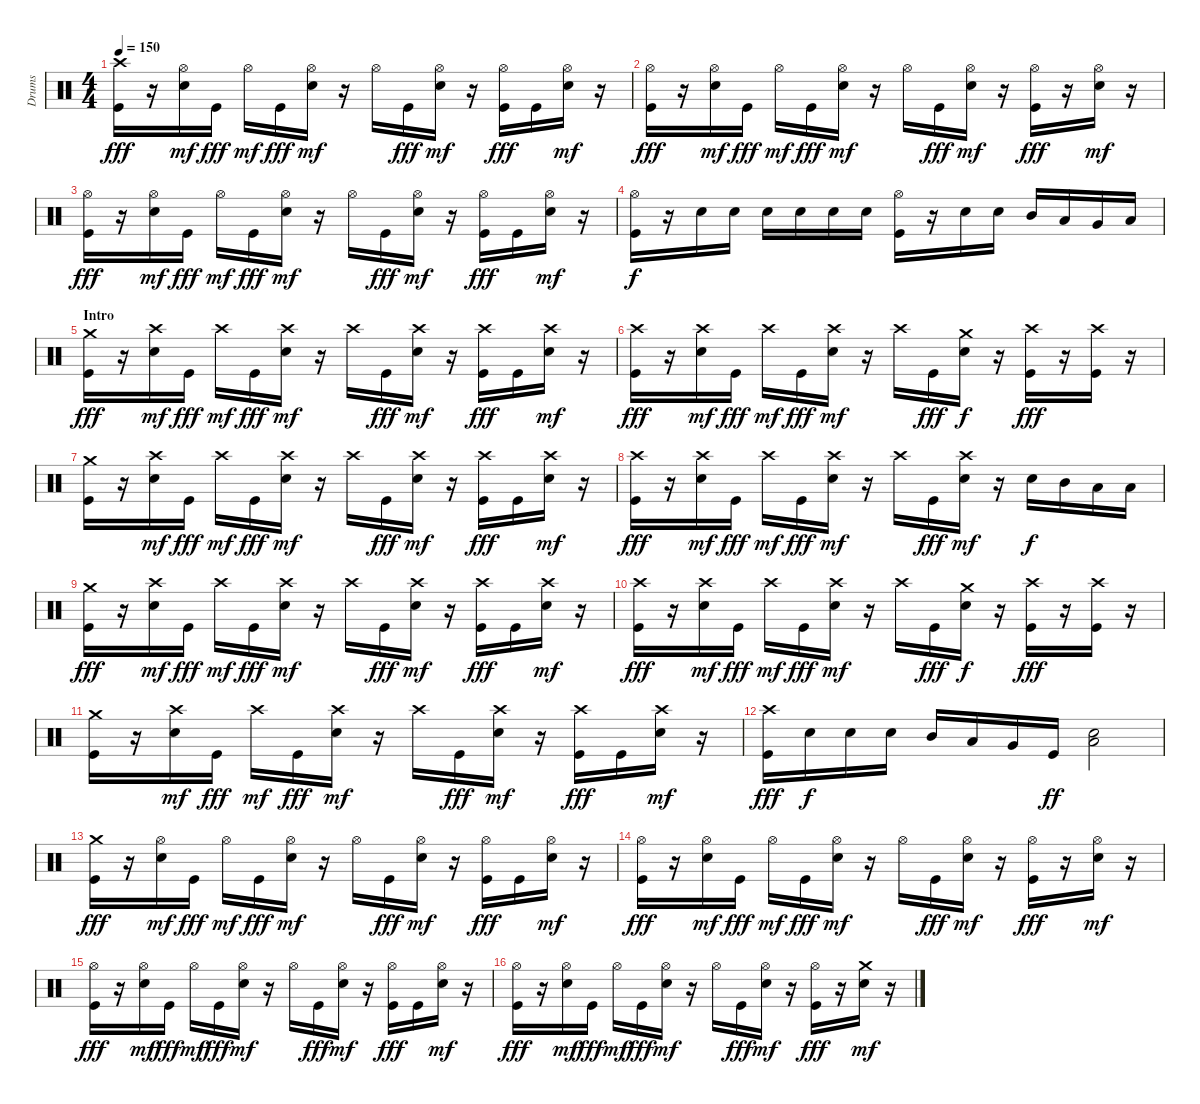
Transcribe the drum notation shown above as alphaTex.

\track ("Drums" "Drums") {instrument percussion}
\staff {score}
\articulation defaults
\ts (4 4)
\tempo 150
\clef neutral
\ks c
("Crash high (hit)" "Kick (hit)").16{dy fff} r.16 ("Hi-Hat (open)" "Electric Snare (hit)").16{dy mf} "Kick (hit)".16{dy fff} "Hi-Hat (open)".16{dy mf} "Kick (hit)".16{dy fff} ("Hi-Hat (open)" "Electric Snare (hit)").16{dy mf} r.16 "Hi-Hat (open)".16 "Kick (hit)".16{dy fff} ("Hi-Hat (open)" "Electric Snare (hit)").16{dy mf} r.16 ("Hi-Hat (open)" "Kick (hit)").16{dy fff} "Kick (hit)".16 ("Hi-Hat (open)" "Electric Snare (hit)").16{dy mf} r.16 |
("Hi-Hat (open)" "Kick (hit)").16{dy fff} r.16 ("Hi-Hat (open)" "Electric Snare (hit)").16{dy mf} "Kick (hit)".16{dy fff} "Hi-Hat (open)".16{dy mf} "Kick (hit)".16{dy fff} ("Hi-Hat (open)" "Electric Snare (hit)").16{dy mf} r.16 "Hi-Hat (open)".16 "Kick (hit)".16{dy fff} ("Hi-Hat (open)" "Electric Snare (hit)").16{dy mf} r.16 ("Hi-Hat (open)" "Kick (hit)").16{dy fff} r.16 ("Hi-Hat (open)" "Electric Snare (hit)").16{dy mf} r.16 |
("Hi-Hat (open)" "Kick (hit)").16{dy fff} r.16 ("Hi-Hat (open)" "Electric Snare (hit)").16{dy mf} "Kick (hit)".16{dy fff} "Hi-Hat (open)".16{dy mf} "Kick (hit)".16{dy fff} ("Hi-Hat (open)" "Electric Snare (hit)").16{dy mf} r.16 "Hi-Hat (open)".16 "Kick (hit)".16{dy fff} ("Hi-Hat (open)" "Electric Snare (hit)").16{dy mf} r.16 ("Hi-Hat (open)" "Kick (hit)").16{dy fff} "Kick (hit)".16 ("Hi-Hat (open)" "Electric Snare (hit)").16{dy mf} r.16 |
("Hi-Hat (open)" "Kick (hit)").16{dy f} r.16 "Electric Snare (hit)".16 "Electric Snare (hit)".16 "Electric Snare (hit)".16 "Electric Snare (hit)".16 "Electric Snare (hit)".16 "Electric Snare (hit)".16 ("Hi-Hat (open)" "Kick (hit)").16 r.16 "Electric Snare (hit)".16 "Electric Snare (hit)".16 "Mid Tom (hit)".16 "Low Tom (hit)".16 "Very Low Tom (hit)".16 "Low Floor Tom (hit)".16 |
\section ("" "Intro")
("Crash medium (hit)" "Kick (hit)").16{dy fff} r.16 ("Crash high (hit)" "Electric Snare (hit)").16{dy mf} "Kick (hit)".16{dy fff} "Crash high (hit)".16{dy mf} "Kick (hit)".16{dy fff} ("Crash high (hit)" "Electric Snare (hit)").16{dy mf} r.16 "Crash high (hit)".16 "Kick (hit)".16{dy fff} ("Crash high (hit)" "Electric Snare (hit)").16{dy mf} r.16 ("Crash high (hit)" "Kick (hit)").16{dy fff} "Kick (hit)".16 ("Crash high (hit)" "Electric Snare (hit)").16{dy mf} r.16 |
("Crash high (hit)" "Kick (hit)").16{dy fff} r.16 ("Crash high (hit)" "Electric Snare (hit)").16{dy mf} "Kick (hit)".16{dy fff} "Crash high (hit)".16{dy mf} "Kick (hit)".16{dy fff} ("Crash high (hit)" "Electric Snare (hit)").16{dy mf} r.16 "Crash high (hit)".16 "Kick (hit)".16{dy fff} ("Crash medium (hit)" "Electric Snare (hit)").16{dy f} r.16 ("Crash high (hit)" "Kick (hit)").16{dy fff} r.16 ("Crash high (hit)" "Kick (hit)").16 r.16 |
("Crash medium (hit)" "Kick (hit)").16 r.16 ("Crash high (hit)" "Electric Snare (hit)").16{dy mf} "Kick (hit)".16{dy fff} "Crash high (hit)".16{dy mf} "Kick (hit)".16{dy fff} ("Crash high (hit)" "Electric Snare (hit)").16{dy mf} r.16 "Crash high (hit)".16 "Kick (hit)".16{dy fff} ("Crash high (hit)" "Electric Snare (hit)").16{dy mf} r.16 ("Crash high (hit)" "Kick (hit)").16{dy fff} "Kick (hit)".16 ("Crash high (hit)" "Electric Snare (hit)").16{dy mf} r.16 |
("Crash high (hit)" "Kick (hit)").16{dy fff} r.16 ("Crash high (hit)" "Electric Snare (hit)").16{dy mf} "Kick (hit)".16{dy fff} "Crash high (hit)".16{dy mf} "Kick (hit)".16{dy fff} ("Crash high (hit)" "Electric Snare (hit)").16{dy mf} r.16 "Crash high (hit)".16 "Kick (hit)".16{dy fff} ("Crash high (hit)" "Electric Snare (hit)").16{dy mf} r.16 "Electric Snare (hit)".16{dy f} "Mid Tom (hit)".16 "Low Tom (hit)".16 "Low Floor Tom (hit)".16 |
("Crash medium (hit)" "Kick (hit)").16{dy fff} r.16 ("Crash high (hit)" "Electric Snare (hit)").16{dy mf} "Kick (hit)".16{dy fff} "Crash high (hit)".16{dy mf} "Kick (hit)".16{dy fff} ("Crash high (hit)" "Electric Snare (hit)").16{dy mf} r.16 "Crash high (hit)".16 "Kick (hit)".16{dy fff} ("Crash high (hit)" "Electric Snare (hit)").16{dy mf} r.16 ("Crash high (hit)" "Kick (hit)").16{dy fff} "Kick (hit)".16 ("Crash high (hit)" "Electric Snare (hit)").16{dy mf} r.16 |
("Crash high (hit)" "Kick (hit)").16{dy fff} r.16 ("Crash high (hit)" "Electric Snare (hit)").16{dy mf} "Kick (hit)".16{dy fff} "Crash high (hit)".16{dy mf} "Kick (hit)".16{dy fff} ("Crash high (hit)" "Electric Snare (hit)").16{dy mf} r.16 "Crash high (hit)".16 "Kick (hit)".16{dy fff} ("Crash medium (hit)" "Electric Snare (hit)").16{dy f} r.16 ("Crash high (hit)" "Kick (hit)").16{dy fff} r.16 ("Crash high (hit)" "Kick (hit)").16 r.16 |
("Crash medium (hit)" "Kick (hit)").16 r.16 ("Crash high (hit)" "Electric Snare (hit)").16{dy mf} "Kick (hit)".16{dy fff} "Crash high (hit)".16{dy mf} "Kick (hit)".16{dy fff} ("Crash high (hit)" "Electric Snare (hit)").16{dy mf} r.16 "Crash high (hit)".16 "Kick (hit)".16{dy fff} ("Crash high (hit)" "Electric Snare (hit)").16{dy mf} r.16 ("Crash high (hit)" "Kick (hit)").16{dy fff} "Kick (hit)".16 ("Crash high (hit)" "Electric Snare (hit)").16{dy mf} r.16 |
("Crash high (hit)" "Kick (hit)").16{dy fff} "Electric Snare (hit)".16{dy f} "Electric Snare (hit)".16 "Electric Snare (hit)".16 "Mid Tom (hit)".16 "Low Tom (hit)".16 "Very Low Tom (hit)".16 "Kick (hit)".16{dy ff} ("Electric Snare (hit)" "Low Floor Tom (hit)").2 |
("Crash medium (hit)" "Kick (hit)").16{dy fff} r.16 ("Hi-Hat (open)" "Electric Snare (hit)").16{dy mf} "Kick (hit)".16{dy fff} "Hi-Hat (open)".16{dy mf} "Kick (hit)".16{dy fff} ("Hi-Hat (open)" "Electric Snare (hit)").16{dy mf} r.16 "Hi-Hat (open)".16 "Kick (hit)".16{dy fff} ("Hi-Hat (open)" "Electric Snare (hit)").16{dy mf} r.16 ("Hi-Hat (open)" "Kick (hit)").16{dy fff} "Kick (hit)".16 ("Hi-Hat (open)" "Electric Snare (hit)").16{dy mf} r.16 |
("Hi-Hat (open)" "Kick (hit)").16{dy fff} r.16 ("Hi-Hat (open)" "Electric Snare (hit)").16{dy mf} "Kick (hit)".16{dy fff} "Hi-Hat (open)".16{dy mf} "Kick (hit)".16{dy fff} ("Hi-Hat (open)" "Electric Snare (hit)").16{dy mf} r.16 "Hi-Hat (open)".16 "Kick (hit)".16{dy fff} ("Hi-Hat (open)" "Electric Snare (hit)").16{dy mf} r.16 ("Hi-Hat (open)" "Kick (hit)").16{dy fff} r.16 ("Hi-Hat (open)" "Electric Snare (hit)").16{dy mf} r.16 |
("Hi-Hat (open)" "Kick (hit)").16{dy fff} r.16 ("Hi-Hat (open)" "Electric Snare (hit)").16{dy mf} "Kick (hit)".16{dy fff} "Hi-Hat (open)".16{dy mf} "Kick (hit)".16{dy fff} ("Hi-Hat (open)" "Electric Snare (hit)").16{dy mf} r.16 "Hi-Hat (open)".16 "Kick (hit)".16{dy fff} ("Hi-Hat (open)" "Electric Snare (hit)").16{dy mf} r.16 ("Hi-Hat (open)" "Kick (hit)").16{dy fff} "Kick (hit)".16 ("Hi-Hat (open)" "Electric Snare (hit)").16{dy mf} r.16 |
("Hi-Hat (open)" "Kick (hit)").16{dy fff} r.16 ("Hi-Hat (open)" "Electric Snare (hit)").16{dy mf} "Kick (hit)".16{dy fff} "Hi-Hat (open)".16{dy mf} "Kick (hit)".16{dy fff} ("Hi-Hat (open)" "Electric Snare (hit)").16{dy mf} r.16 "Hi-Hat (open)".16 "Kick (hit)".16{dy fff} ("Hi-Hat (open)" "Electric Snare (hit)").16{dy mf} r.16 ("Hi-Hat (open)" "Kick (hit)").16{dy fff} r.16 ("Crash medium (hit)" "Electric Snare (hit)").16{dy mf} r.16
